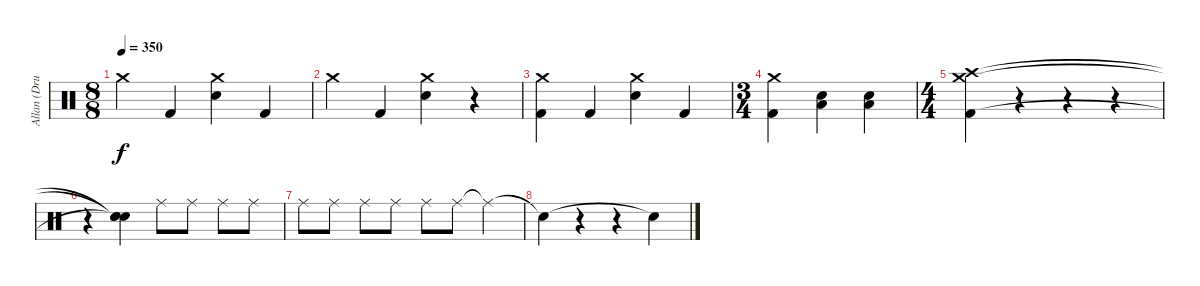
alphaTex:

\track ("Allan (Drums)" "Allan (Dru") {instrument percussion}
\staff {score}
\articulation defaults
\ts (8 8)
\tempo 350
\clef neutral
\ks c "Crash medium (hit)".4{dy f} "Kick (hit) 2".4
("Crash medium (hit)" "Snare (hit) 2").4 "Kick (hit) 2".4 |
"Crash medium (hit)".4 "Kick (hit) 2".4 ("Crash medium (hit)" "Snare (hit) 2").4 r.4 |
("Crash medium (hit)" "Kick (hit) 2").4 "Kick (hit) 2".4 ("Crash medium (hit)" "Snare (hit) 2").4 "Kick (hit) 2".4 |
\ts (3 4)
("Crash medium (hit)" "Kick (hit) 2").4 ("Low Tom (hit)" "Snare (hit) 2").4 ("Low Tom (hit)" "Snare (hit) 2").4 |
\ts (4 4)
("Crash medium (hit)" "Crash high (hit)" "Kick (hit) 2").4 r.4 r.4 r.4 |
r.4 ("Snare (hit)"{t} "Snare (hit)"{t} "Snare (hit)"{t}).4 "Ride (middle)".8 "Ride (middle)".8 "Ride (middle)".8 "Ride (middle)".8 |
"Ride (middle)".8 "Ride (middle)".8 "Ride (middle)".8 "Ride (middle)".8 "Ride (middle)".8 "Ride (middle)".8 "Ride (middle)"{t}.4 |
"Snare (hit)"{t}.4 r.4 r.4 "Snare (hit)"{t}.4
